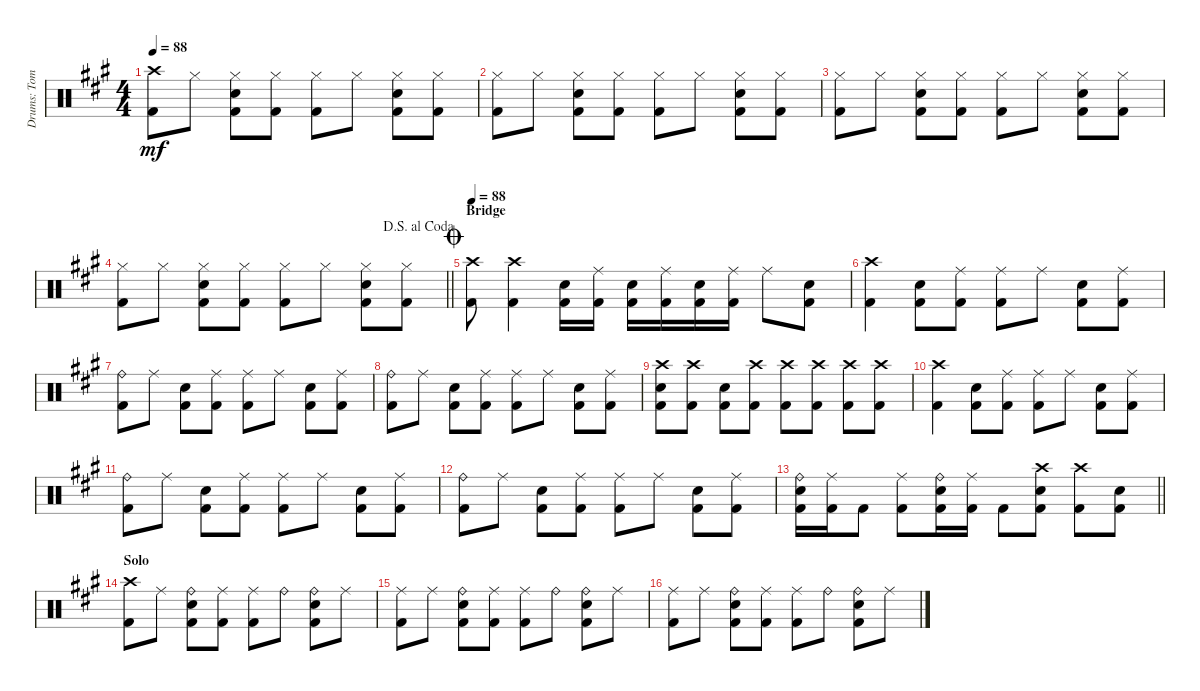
\track ("Drums: Tom" "Drums: Tom") {instrument percussion}
\staff {score}
\articulation defaults
\ts (4 4)
\tempo 88
\clef neutral
\ks a
("Crash high (hit)" "Kick (hit) 2").8{dy mf} "Hi-Hat (closed)".8 ("Hi-Hat (closed)" "Electric Snare (hit)" "Kick (hit) 2").8 ("Hi-Hat (closed)" "Kick (hit) 2").8 ("Hi-Hat (closed)" "Kick (hit) 2").8 "Hi-Hat (closed)".8 ("Hi-Hat (closed)" "Electric Snare (hit)" "Kick (hit) 2").8 ("Hi-Hat (closed)" "Kick (hit) 2").8 |
("Hi-Hat (closed)" "Kick (hit) 2").8 "Hi-Hat (closed)".8 ("Hi-Hat (closed)" "Electric Snare (hit)" "Kick (hit) 2").8 ("Hi-Hat (closed)" "Kick (hit) 2").8 ("Hi-Hat (closed)" "Kick (hit) 2").8 "Hi-Hat (closed)".8 ("Hi-Hat (closed)" "Electric Snare (hit)" "Kick (hit) 2").8 ("Hi-Hat (closed)" "Kick (hit) 2").8 |
("Hi-Hat (closed)" "Kick (hit) 2").8 "Hi-Hat (closed)".8 ("Hi-Hat (closed)" "Electric Snare (hit)" "Kick (hit) 2").8 ("Hi-Hat (closed)" "Kick (hit) 2").8 ("Hi-Hat (closed)" "Kick (hit) 2").8 "Hi-Hat (closed)".8 ("Hi-Hat (closed)" "Electric Snare (hit)" "Kick (hit) 2").8 ("Hi-Hat (closed)" "Kick (hit) 2").8 |
\jump dalsegnoalcoda
\barLineRight lightlight
("Hi-Hat (closed)" "Kick (hit) 2").8 "Hi-Hat (closed)".8 ("Hi-Hat (closed)" "Electric Snare (hit)" "Kick (hit) 2").8 ("Hi-Hat (closed)" "Kick (hit) 2").8 ("Hi-Hat (closed)" "Kick (hit) 2").8 "Hi-Hat (closed)".8 ("Hi-Hat (closed)" "Electric Snare (hit)" "Kick (hit) 2").8 ("Hi-Hat (closed)" "Kick (hit) 2").8 |
\section ("" "Bridge")
\jump coda
\tempo 88
("Crash high (hit)" "Kick (hit) 2").8 ("Crash high (hit)" "Kick (hit) 2").4 ("Electric Snare (hit)" "Kick (hit) 2").16 ("Ride (middle)" "Kick (hit) 2").16 ("Electric Snare (hit)" "Kick (hit) 2").16 ("Ride (middle)" "Kick (hit) 2").16 ("Electric Snare (hit)" "Kick (hit) 2").16 ("Ride (middle)" "Kick (hit) 2").16 "Ride (middle)".8 ("Electric Snare (hit)" "Kick (hit) 2").8 |
("Crash high (hit)" "Kick (hit) 2").4 ("Electric Snare (hit)" "Kick (hit) 2").8 ("Ride (middle)" "Kick (hit) 2").8 ("Ride (middle)" "Kick (hit) 2").8 "Ride (middle)".8 ("Electric Snare (hit)" "Kick (hit) 2").8 ("Ride (middle)" "Kick (hit) 2").8 |
("Ride (bell)" "Kick (hit) 2").8 "Ride (middle)".8 ("Electric Snare (hit)" "Kick (hit) 2").8 ("Ride (middle)" "Kick (hit) 2").8 ("Ride (middle)" "Kick (hit) 2").8 "Ride (middle)".8 ("Electric Snare (hit)" "Kick (hit) 2").8 ("Ride (middle)" "Kick (hit) 2").8 |
("Ride (bell)" "Kick (hit) 2").8 "Ride (middle)".8 ("Electric Snare (hit)" "Kick (hit) 2").8 ("Ride (middle)" "Kick (hit) 2").8 ("Ride (middle)" "Kick (hit) 2").8 "Ride (middle)".8 ("Electric Snare (hit)" "Kick (hit) 2").8 ("Ride (middle)" "Kick (hit) 2").8 |
("Crash high (hit)" "Snare (hit) 2" "Kick (hit) 2").8 ("Crash high (hit)" "Kick (hit) 2").8 ("Electric Snare (hit)" "Kick (hit) 2").8 ("Crash high (hit)" "Kick (hit) 2").8 ("Crash high (hit)" "Kick (hit) 2").8 ("Crash high (hit)" "Kick (hit) 2").8 ("Crash high (hit)" "Kick (hit) 2").8 ("Crash high (hit)" "Kick (hit) 2").8 |
("Crash high (hit)" "Kick (hit) 2").4 ("Electric Snare (hit)" "Kick (hit) 2").8 ("Ride (middle)" "Kick (hit) 2").8 ("Ride (middle)" "Kick (hit) 2").8 "Ride (middle)".8 ("Electric Snare (hit)" "Kick (hit) 2").8 ("Ride (middle)" "Kick (hit) 2").8 |
("Ride (bell)" "Kick (hit) 2").8 "Ride (middle)".8 ("Electric Snare (hit)" "Kick (hit) 2").8 ("Ride (middle)" "Kick (hit) 2").8 ("Ride (middle)" "Kick (hit) 2").8 "Ride (middle)".8 ("Electric Snare (hit)" "Kick (hit) 2").8 ("Ride (middle)" "Kick (hit) 2").8 |
("Ride (bell)" "Kick (hit) 2").8 "Ride (middle)".8 ("Electric Snare (hit)" "Kick (hit) 2").8 ("Ride (middle)" "Kick (hit) 2").8 ("Ride (middle)" "Kick (hit) 2").8 "Ride (middle)".8 ("Electric Snare (hit)" "Kick (hit) 2").8 ("Ride (middle)" "Kick (hit) 2").8 |
\barLineRight lightlight
("Ride (bell)" "Electric Snare (hit)" "Kick (hit) 2").16 ("Ride (middle)" "Kick (hit) 2").16 "Kick (hit) 2".8 ("Ride (middle)" "Kick (hit) 2").8 ("Ride (bell)" "Electric Snare (hit)" "Kick (hit) 2").16 ("Ride (middle)" "Kick (hit) 2").16 "Kick (hit) 2".8 ("Crash high (hit)" "Snare (hit) 2" "Kick (hit) 2").8 ("Crash high (hit)" "Kick (hit) 2").8 ("Electric Snare (hit)" "Kick (hit) 2").8 |
\section ("" "Solo")
("Crash high (hit)" "Kick (hit) 2").8 "Ride (middle)".8 ("Ride (bell)" "Snare (hit) 2" "Kick (hit) 2").8 ("Ride (middle)" "Kick (hit) 2").8 ("Ride (middle)" "Kick (hit) 2").8 "Ride (bell)".8 ("Ride (bell)" "Snare (hit) 2" "Kick (hit) 2").8 "Ride (middle)".8 |
("Ride (middle)" "Kick (hit) 2").8 "Ride (middle)".8 ("Ride (bell)" "Snare (hit) 2" "Kick (hit) 2").8 ("Ride (middle)" "Kick (hit) 2").8 ("Ride (middle)" "Kick (hit) 2").8 "Ride (bell)".8 ("Ride (bell)" "Snare (hit) 2" "Kick (hit) 2").8 "Ride (middle)".8 |
("Ride (middle)" "Kick (hit) 2").8 "Ride (middle)".8 ("Ride (bell)" "Snare (hit) 2" "Kick (hit) 2").8 ("Ride (middle)" "Kick (hit) 2").8 ("Ride (middle)" "Kick (hit) 2").8 "Ride (bell)".8 ("Ride (bell)" "Snare (hit) 2" "Kick (hit) 2").8 "Ride (middle)".8
